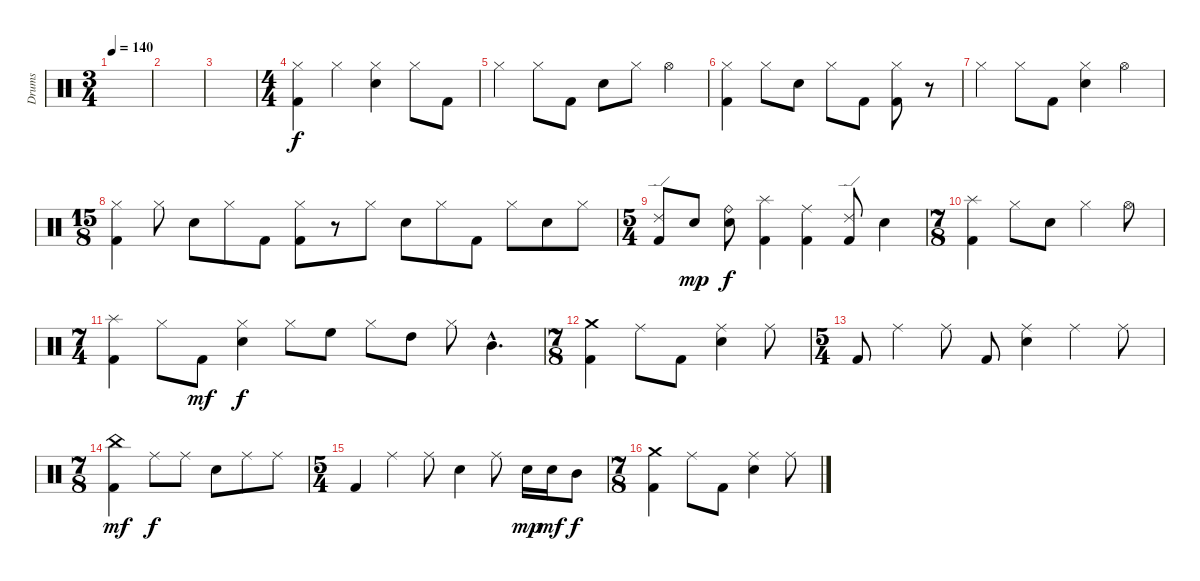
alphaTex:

\track ("Drums" "Drums") {instrument percussion}
\staff {score}
\articulation defaults
\ts (3 4)
\tempo 140
\clef neutral
\ks c
|
|
|
\ts (4 4)
("Hi-Hat (closed)" "Kick (hit) 2").4 "Hi-Hat (closed)".4 ("Hi-Hat (closed)" "Snare (hit) 2").4 "Hi-Hat (closed)".8 "Kick (hit) 2".8 |
"Hi-Hat (closed)".4 "Hi-Hat (closed)".8 "Kick (hit) 2".8 "Snare (hit) 2".8 "Hi-Hat (closed)".8 "Hi-Hat (open)".4 |
("Hi-Hat (closed)" "Kick (hit) 2").4 "Hi-Hat (closed)".8 "Snare (hit) 2".8 "Hi-Hat (closed)".8 "Kick (hit) 2".8 ("Hi-Hat (closed)" "Kick (hit) 2").8 r.8 |
"Hi-Hat (closed)".4 "Hi-Hat (closed)".8 "Kick (hit) 2".8 ("Hi-Hat (closed)" "Snare (hit) 2").4 "Hi-Hat (open)".4 |
\ts (15 8)
("Hi-Hat (closed)" "Kick (hit) 2").4 "Hi-Hat (closed)".8 "Snare (hit) 2".8 "Hi-Hat (closed)".8 "Kick (hit) 2".8 ("Hi-Hat (closed)" "Kick (hit) 2").8 r.8 "Hi-Hat (closed)".8 "Snare (hit) 2".8 "Hi-Hat (closed)".8 "Kick (hit) 2".8 "Hi-Hat (closed)".8 "Snare (hit) 2".8 "Hi-Hat (closed)".8 |
\ts (5 4)
("Ride (edge) 2" "Kick (hit) 2").8 "Snare (hit) 2".8{dy mp} ("Ride (bell)" "Snare (hit) 2").8{dy f} ("Splash (hit)" "Kick (hit) 2").4 ("Ride (middle)" "Kick (hit) 2").4 ("Ride (edge) 2" "Kick (hit) 2").8 "Snare (hit) 2".4 |
\ts (7 8)
("Splash (hit)" "Kick (hit) 2").4 "Hi-Hat (closed)".8 "Snare (hit) 2".8 "Hi-Hat (closed)".4 "Hi-Hat (open)".8 |
\ts (7 4)
("Splash (hit)" "Kick (hit) 2").4 "Hi-Hat (closed)".8 "Kick (hit) 2".8{dy mf} ("Hi-Hat (closed)" "Snare (hit) 2").4{dy f} "Hi-Hat (closed)".8 "High Floor Tom (hit)".8 "Hi-Hat (closed)".8 "High Tom (hit)".8 "Hi-Hat (closed)".8 "Mid Tom (hit)"{hac}.4{d} |
\ts (7 8)
("Crash medium (hit)" "Kick (hit) 2").4 "Ride (middle)".8 "Kick (hit) 2".8 ("Ride (middle)" "Snare (hit) 2").4 "Ride (middle)".8 |
\ts (5 4)
"Kick (hit) 2".8 "Ride (middle)".4 "Ride (middle)".8 "Kick (hit) 2".8 ("Ride (middle)" "Snare (hit) 2").4 "Ride (middle)".4 "Ride (middle)".8 |
\ts (7 8)
("China (hit)" "Kick (hit) 2").4{dy mf} "Ride (middle)".8{dy f} "Ride (middle)".8 "Snare (hit) 2".8 "Ride (middle)".8 "Ride (middle)".8 |
\ts (5 4)
"Kick (hit) 2".4 "Ride (middle)".4 "Ride (middle)".8 "Snare (hit) 2".4 "Ride (middle)".8 "Snare (hit) 2".16{dy mp} "Snare (hit) 2".16{dy mf} "Mid Tom (hit)".8{dy f} |
\ts (7 8)
("Crash medium (hit)" "Kick (hit) 2").4 "Ride (middle)".8 "Kick (hit) 2".8 ("Ride (middle)" "Snare (hit) 2").4 "Ride (middle)".8
